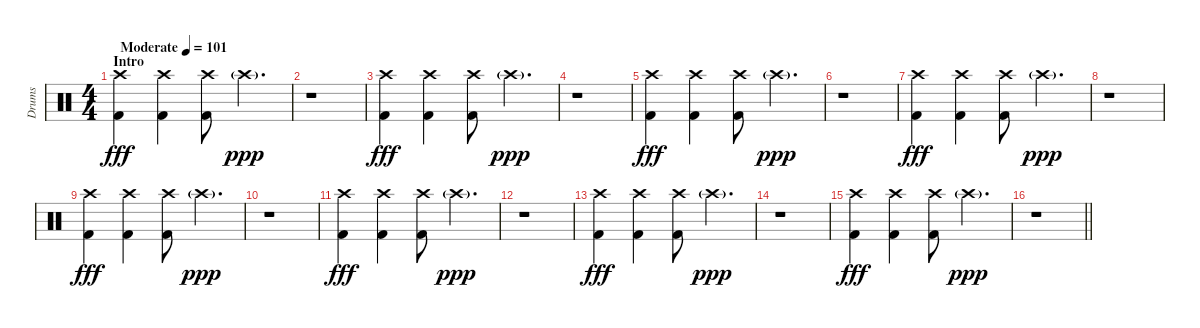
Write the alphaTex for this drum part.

\track ("Drums" "Drums") {instrument percussion}
\staff {score}
\articulation defaults
\ts (4 4)
\section ("" "Intro")
\tempo (101 "Moderate")
\clef neutral
\ks c
("Crash high (hit)" "Kick (hit) 2").4{dy fff} ("Crash high (hit)" "Kick (hit) 2").4 ("Crash high (hit)" "Kick (hit) 2").8 "Crash high (hit)"{g}.4{d dy ppp} |
r.1 |
("Crash high (hit)" "Kick (hit) 2").4{dy fff} ("Crash high (hit)" "Kick (hit) 2").4 ("Crash high (hit)" "Kick (hit) 2").8 "Crash high (hit)"{g}.4{d dy ppp} |
r.1 |
("Crash high (hit)" "Kick (hit) 2").4{dy fff} ("Crash high (hit)" "Kick (hit) 2").4 ("Crash high (hit)" "Kick (hit) 2").8 "Crash high (hit)"{g}.4{d dy ppp} |
r.1 |
("Crash high (hit)" "Kick (hit) 2").4{dy fff} ("Crash high (hit)" "Kick (hit) 2").4 ("Crash high (hit)" "Kick (hit) 2").8 "Crash high (hit)"{g}.4{d dy ppp} |
r.1 |
("Crash high (hit)" "Kick (hit) 2").4{dy fff} ("Crash high (hit)" "Kick (hit) 2").4 ("Crash high (hit)" "Kick (hit) 2").8 "Crash high (hit)"{g}.4{d dy ppp} |
r.1 |
("Crash high (hit)" "Kick (hit) 2").4{dy fff} ("Crash high (hit)" "Kick (hit) 2").4 ("Crash high (hit)" "Kick (hit) 2").8 "Crash high (hit)"{g}.4{d dy ppp} |
r.1 |
("Crash high (hit)" "Kick (hit) 2").4{dy fff} ("Crash high (hit)" "Kick (hit) 2").4 ("Crash high (hit)" "Kick (hit) 2").8 "Crash high (hit)"{g}.4{d dy ppp} |
r.1 |
("Crash high (hit)" "Kick (hit) 2").4{dy fff} ("Crash high (hit)" "Kick (hit) 2").4 ("Crash high (hit)" "Kick (hit) 2").8 "Crash high (hit)"{g}.4{d dy ppp} |
\barLineRight lightlight
r.1
